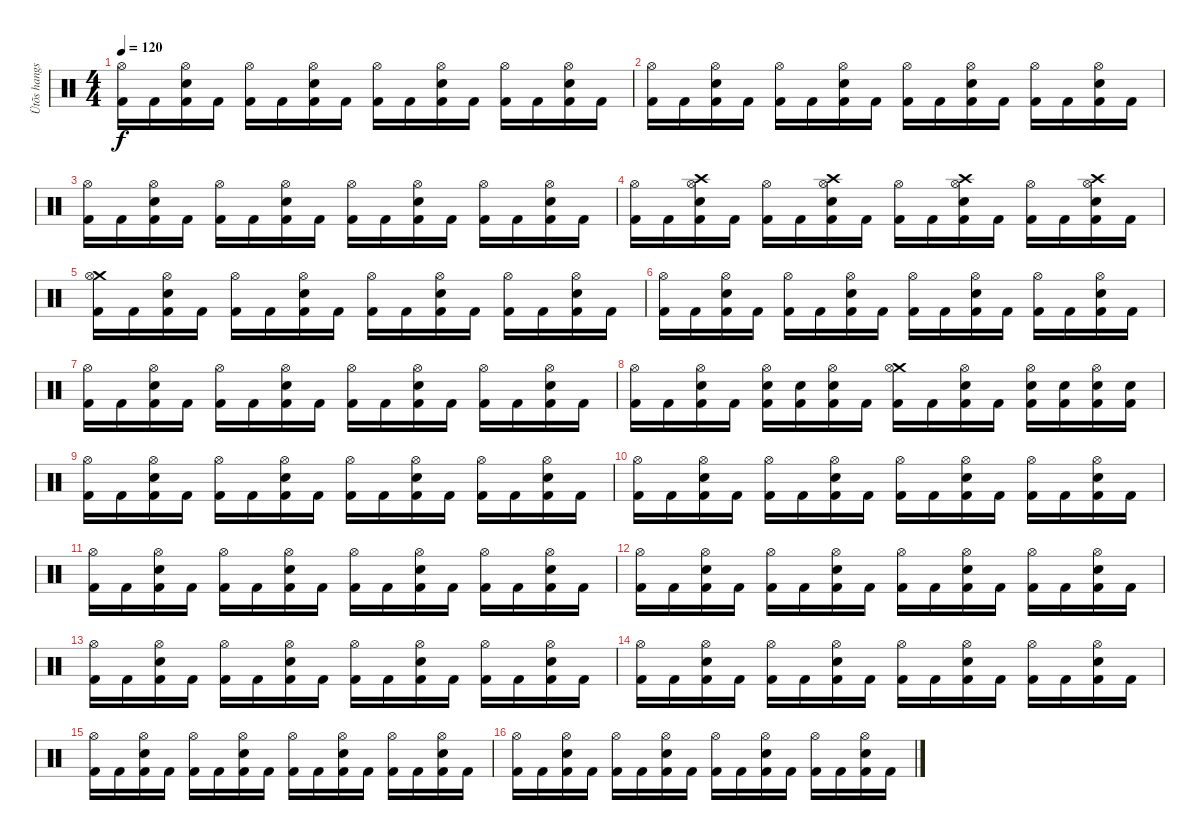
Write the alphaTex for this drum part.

\track ("Ütõs hangszer" "Ütõs hangs") {instrument percussion}
\staff {score}
\articulation defaults
\ts (4 4)
\tempo 120
\clef neutral
\ks c
("Hi-Hat (open)" "Kick (hit) 2").16{dy f} "Kick (hit) 2".16 ("Hi-Hat (open)" "Electric Snare (hit)" "Kick (hit) 2").16 "Kick (hit) 2".16 ("Hi-Hat (open)" "Kick (hit) 2").16 "Kick (hit) 2".16 ("Hi-Hat (open)" "Electric Snare (hit)" "Kick (hit) 2").16 "Kick (hit) 2".16 ("Hi-Hat (open)" "Kick (hit) 2").16 "Kick (hit) 2".16 ("Hi-Hat (open)" "Electric Snare (hit)" "Kick (hit) 2").16 "Kick (hit) 2".16 ("Hi-Hat (open)" "Kick (hit) 2").16 "Kick (hit) 2".16 ("Hi-Hat (open)" "Electric Snare (hit)" "Kick (hit) 2").16 "Kick (hit) 2".16 |
("Hi-Hat (open)" "Kick (hit) 2").16 "Kick (hit) 2".16 ("Hi-Hat (open)" "Electric Snare (hit)" "Kick (hit) 2").16 "Kick (hit) 2".16 ("Hi-Hat (open)" "Kick (hit) 2").16 "Kick (hit) 2".16 ("Hi-Hat (open)" "Electric Snare (hit)" "Kick (hit) 2").16 "Kick (hit) 2".16 ("Hi-Hat (open)" "Kick (hit) 2").16 "Kick (hit) 2".16 ("Hi-Hat (open)" "Electric Snare (hit)" "Kick (hit) 2").16 "Kick (hit) 2".16 ("Hi-Hat (open)" "Kick (hit) 2").16 "Kick (hit) 2".16 ("Hi-Hat (open)" "Electric Snare (hit)" "Kick (hit) 2").16 "Kick (hit) 2".16 |
("Hi-Hat (open)" "Kick (hit) 2").16 "Kick (hit) 2".16 ("Hi-Hat (open)" "Electric Snare (hit)" "Kick (hit) 2").16 "Kick (hit) 2".16 ("Hi-Hat (open)" "Kick (hit) 2").16 "Kick (hit) 2".16 ("Hi-Hat (open)" "Electric Snare (hit)" "Kick (hit) 2").16 "Kick (hit) 2".16 ("Hi-Hat (open)" "Kick (hit) 2").16 "Kick (hit) 2".16 ("Hi-Hat (open)" "Electric Snare (hit)" "Kick (hit) 2").16 "Kick (hit) 2".16 ("Hi-Hat (open)" "Kick (hit) 2").16 "Kick (hit) 2".16 ("Hi-Hat (open)" "Electric Snare (hit)" "Kick (hit) 2").16 "Kick (hit) 2".16 |
("Hi-Hat (open)" "Kick (hit) 2").16 "Kick (hit) 2".16 ("Crash high (hit)" "Hi-Hat (open)" "Electric Snare (hit)" "Kick (hit) 2").16 "Kick (hit) 2".16 ("Hi-Hat (open)" "Kick (hit) 2").16 "Kick (hit) 2".16 ("Crash high (hit)" "Hi-Hat (open)" "Electric Snare (hit)" "Kick (hit) 2").16 "Kick (hit) 2".16 ("Hi-Hat (open)" "Kick (hit) 2").16 "Kick (hit) 2".16 ("Crash high (hit)" "Hi-Hat (open)" "Electric Snare (hit)" "Kick (hit) 2").16 "Kick (hit) 2".16 ("Hi-Hat (open)" "Kick (hit) 2").16 "Kick (hit) 2".16 ("Crash high (hit)" "Hi-Hat (open)" "Electric Snare (hit)" "Kick (hit) 2").16 "Kick (hit) 2".16 |
("Crash medium (hit)" "Hi-Hat (open)" "Kick (hit) 2").16 "Kick (hit) 2".16 ("Hi-Hat (open)" "Electric Snare (hit)" "Kick (hit) 2").16 "Kick (hit) 2".16 ("Hi-Hat (open)" "Kick (hit) 2").16 "Kick (hit) 2".16 ("Hi-Hat (open)" "Electric Snare (hit)" "Kick (hit) 2").16 "Kick (hit) 2".16 ("Hi-Hat (open)" "Kick (hit) 2").16 "Kick (hit) 2".16 ("Hi-Hat (open)" "Electric Snare (hit)" "Kick (hit) 2").16 "Kick (hit) 2".16 ("Hi-Hat (open)" "Kick (hit) 2").16 "Kick (hit) 2".16 ("Hi-Hat (open)" "Electric Snare (hit)" "Kick (hit) 2").16 "Kick (hit) 2".16 |
("Hi-Hat (open)" "Kick (hit) 2").16 "Kick (hit) 2".16 ("Hi-Hat (open)" "Electric Snare (hit)" "Kick (hit) 2").16 "Kick (hit) 2".16 ("Hi-Hat (open)" "Kick (hit) 2").16 "Kick (hit) 2".16 ("Hi-Hat (open)" "Electric Snare (hit)" "Kick (hit) 2").16 "Kick (hit) 2".16 ("Hi-Hat (open)" "Kick (hit) 2").16 "Kick (hit) 2".16 ("Hi-Hat (open)" "Electric Snare (hit)" "Kick (hit) 2").16 "Kick (hit) 2".16 ("Hi-Hat (open)" "Kick (hit) 2").16 "Kick (hit) 2".16 ("Hi-Hat (open)" "Electric Snare (hit)" "Kick (hit) 2").16 "Kick (hit) 2".16 |
("Hi-Hat (open)" "Kick (hit) 2").16 "Kick (hit) 2".16 ("Hi-Hat (open)" "Electric Snare (hit)" "Kick (hit) 2").16 "Kick (hit) 2".16 ("Hi-Hat (open)" "Kick (hit) 2").16 "Kick (hit) 2".16 ("Hi-Hat (open)" "Electric Snare (hit)" "Kick (hit) 2").16 "Kick (hit) 2".16 ("Hi-Hat (open)" "Kick (hit) 2").16 "Kick (hit) 2".16 ("Hi-Hat (open)" "Electric Snare (hit)" "Kick (hit) 2").16 "Kick (hit) 2".16 ("Hi-Hat (open)" "Kick (hit) 2").16 "Kick (hit) 2".16 ("Hi-Hat (open)" "Electric Snare (hit)" "Kick (hit) 2").16 "Kick (hit) 2".16 |
("Hi-Hat (open)" "Kick (hit) 2").16 "Kick (hit) 2".16 ("Hi-Hat (open)" "Electric Snare (hit)" "Kick (hit) 2").16 "Kick (hit) 2".16 ("Hi-Hat (open)" "Electric Snare (hit)" "Kick (hit) 2").16 ("Electric Snare (hit)" "Kick (hit) 2").16 ("Hi-Hat (open)" "Electric Snare (hit)" "Kick (hit) 2").16 "Kick (hit) 2".16 ("Crash medium (hit)" "Hi-Hat (open)" "Kick (hit) 2").16 "Kick (hit) 2".16 ("Hi-Hat (open)" "Electric Snare (hit)" "Kick (hit) 2").16 "Kick (hit) 2".16 ("Hi-Hat (open)" "Electric Snare (hit)" "Kick (hit) 2").16 ("Electric Snare (hit)" "Kick (hit) 2").16 ("Hi-Hat (open)" "Electric Snare (hit)" "Kick (hit) 2").16 ("Electric Snare (hit)" "Kick (hit) 2").16 |
("Hi-Hat (open)" "Kick (hit) 2").16 "Kick (hit) 2".16 ("Hi-Hat (open)" "Electric Snare (hit)" "Kick (hit) 2").16 "Kick (hit) 2".16 ("Hi-Hat (open)" "Kick (hit) 2").16 "Kick (hit) 2".16 ("Hi-Hat (open)" "Electric Snare (hit)" "Kick (hit) 2").16 "Kick (hit) 2".16 ("Hi-Hat (open)" "Kick (hit) 2").16 "Kick (hit) 2".16 ("Hi-Hat (open)" "Electric Snare (hit)" "Kick (hit) 2").16 "Kick (hit) 2".16 ("Hi-Hat (open)" "Kick (hit) 2").16 "Kick (hit) 2".16 ("Hi-Hat (open)" "Electric Snare (hit)" "Kick (hit) 2").16 "Kick (hit) 2".16 |
("Hi-Hat (open)" "Kick (hit) 2").16 "Kick (hit) 2".16 ("Hi-Hat (open)" "Electric Snare (hit)" "Kick (hit) 2").16 "Kick (hit) 2".16 ("Hi-Hat (open)" "Kick (hit) 2").16 "Kick (hit) 2".16 ("Hi-Hat (open)" "Electric Snare (hit)" "Kick (hit) 2").16 "Kick (hit) 2".16 ("Hi-Hat (open)" "Kick (hit) 2").16 "Kick (hit) 2".16 ("Hi-Hat (open)" "Electric Snare (hit)" "Kick (hit) 2").16 "Kick (hit) 2".16 ("Hi-Hat (open)" "Kick (hit) 2").16 "Kick (hit) 2".16 ("Hi-Hat (open)" "Electric Snare (hit)" "Kick (hit) 2").16 "Kick (hit) 2".16 |
("Hi-Hat (open)" "Kick (hit) 2").16 "Kick (hit) 2".16 ("Hi-Hat (open)" "Electric Snare (hit)" "Kick (hit) 2").16 "Kick (hit) 2".16 ("Hi-Hat (open)" "Kick (hit) 2").16 "Kick (hit) 2".16 ("Hi-Hat (open)" "Electric Snare (hit)" "Kick (hit) 2").16 "Kick (hit) 2".16 ("Hi-Hat (open)" "Kick (hit) 2").16 "Kick (hit) 2".16 ("Hi-Hat (open)" "Electric Snare (hit)" "Kick (hit) 2").16 "Kick (hit) 2".16 ("Hi-Hat (open)" "Kick (hit) 2").16 "Kick (hit) 2".16 ("Hi-Hat (open)" "Electric Snare (hit)" "Kick (hit) 2").16 "Kick (hit) 2".16 |
("Hi-Hat (open)" "Kick (hit) 2").16 "Kick (hit) 2".16 ("Hi-Hat (open)" "Electric Snare (hit)" "Kick (hit) 2").16 "Kick (hit) 2".16 ("Hi-Hat (open)" "Kick (hit) 2").16 "Kick (hit) 2".16 ("Hi-Hat (open)" "Electric Snare (hit)" "Kick (hit) 2").16 "Kick (hit) 2".16 ("Hi-Hat (open)" "Kick (hit) 2").16 "Kick (hit) 2".16 ("Hi-Hat (open)" "Electric Snare (hit)" "Kick (hit) 2").16 "Kick (hit) 2".16 ("Hi-Hat (open)" "Kick (hit) 2").16 "Kick (hit) 2".16 ("Hi-Hat (open)" "Electric Snare (hit)" "Kick (hit) 2").16 "Kick (hit) 2".16 |
("Hi-Hat (open)" "Kick (hit) 2").16 "Kick (hit) 2".16 ("Hi-Hat (open)" "Electric Snare (hit)" "Kick (hit) 2").16 "Kick (hit) 2".16 ("Hi-Hat (open)" "Kick (hit) 2").16 "Kick (hit) 2".16 ("Hi-Hat (open)" "Electric Snare (hit)" "Kick (hit) 2").16 "Kick (hit) 2".16 ("Hi-Hat (open)" "Kick (hit) 2").16 "Kick (hit) 2".16 ("Hi-Hat (open)" "Electric Snare (hit)" "Kick (hit) 2").16 "Kick (hit) 2".16 ("Hi-Hat (open)" "Kick (hit) 2").16 "Kick (hit) 2".16 ("Hi-Hat (open)" "Electric Snare (hit)" "Kick (hit) 2").16 "Kick (hit) 2".16 |
("Hi-Hat (open)" "Kick (hit) 2").16 "Kick (hit) 2".16 ("Hi-Hat (open)" "Electric Snare (hit)" "Kick (hit) 2").16 "Kick (hit) 2".16 ("Hi-Hat (open)" "Kick (hit) 2").16 "Kick (hit) 2".16 ("Hi-Hat (open)" "Electric Snare (hit)" "Kick (hit) 2").16 "Kick (hit) 2".16 ("Hi-Hat (open)" "Kick (hit) 2").16 "Kick (hit) 2".16 ("Hi-Hat (open)" "Electric Snare (hit)" "Kick (hit) 2").16 "Kick (hit) 2".16 ("Hi-Hat (open)" "Kick (hit) 2").16 "Kick (hit) 2".16 ("Hi-Hat (open)" "Electric Snare (hit)" "Kick (hit) 2").16 "Kick (hit) 2".16 |
("Hi-Hat (open)" "Kick (hit) 2").16 "Kick (hit) 2".16 ("Hi-Hat (open)" "Electric Snare (hit)" "Kick (hit) 2").16 "Kick (hit) 2".16 ("Hi-Hat (open)" "Kick (hit) 2").16 "Kick (hit) 2".16 ("Hi-Hat (open)" "Electric Snare (hit)" "Kick (hit) 2").16 "Kick (hit) 2".16 ("Hi-Hat (open)" "Kick (hit) 2").16 "Kick (hit) 2".16 ("Hi-Hat (open)" "Electric Snare (hit)" "Kick (hit) 2").16 "Kick (hit) 2".16 ("Hi-Hat (open)" "Kick (hit) 2").16 "Kick (hit) 2".16 ("Hi-Hat (open)" "Electric Snare (hit)" "Kick (hit) 2").16 "Kick (hit) 2".16 |
("Hi-Hat (open)" "Kick (hit) 2").16 "Kick (hit) 2".16 ("Hi-Hat (open)" "Electric Snare (hit)" "Kick (hit) 2").16 "Kick (hit) 2".16 ("Hi-Hat (open)" "Kick (hit) 2").16 "Kick (hit) 2".16 ("Hi-Hat (open)" "Electric Snare (hit)" "Kick (hit) 2").16 "Kick (hit) 2".16 ("Hi-Hat (open)" "Kick (hit) 2").16 "Kick (hit) 2".16 ("Hi-Hat (open)" "Electric Snare (hit)" "Kick (hit) 2").16 "Kick (hit) 2".16 ("Hi-Hat (open)" "Kick (hit) 2").16 "Kick (hit) 2".16 ("Hi-Hat (open)" "Electric Snare (hit)" "Kick (hit) 2").16 "Kick (hit) 2".16
